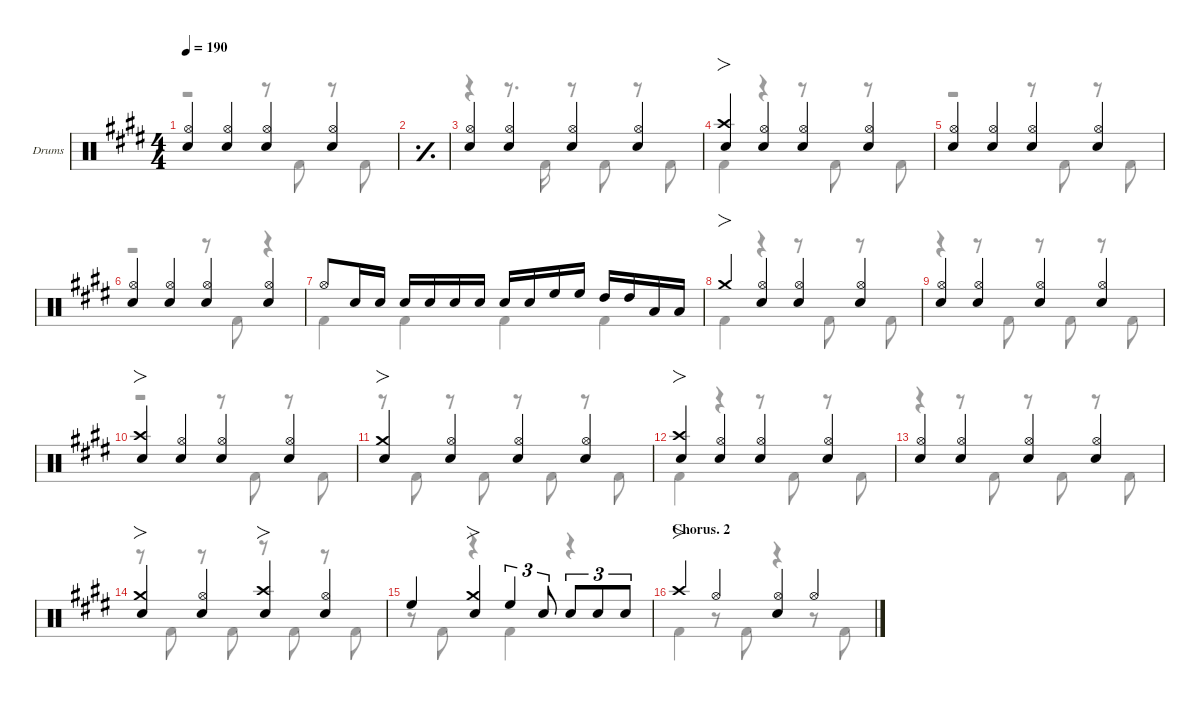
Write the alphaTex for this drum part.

\defaultSystemsLayout 4
\hideDynamics
\bracketExtendMode nobrackets
\firstSystemTrackNameOrientation horizontal
\track ("Drums" "Drums") {defaultSystemsLayout 4 instrument percussion}
\staff {score}
\articulation defaults
\voice
\ts (4 4)
\tempo 190
\clef neutral
\scale
0.244132
\ks e
("Snare (hit) 2"{acc forcenatural} "Hi-Hat (open)"{acc forcenatural}).4{dy f beam Up} ("Snare (hit) 2"{acc forcenatural} "Hi-Hat (open)"{acc forcenatural}).4{beam Up} ("Snare (hit) 2"{acc forcenatural} "Hi-Hat (open)"{acc forcenatural}).4{beam Up} ("Snare (hit) 2"{acc forcenatural} "Hi-Hat (open)"{acc forcenatural}).4{beam Up} |
\simile simple
\scale
0.244132 |
\simile none
\scale
0.244132 ("Snare (hit) 2"{acc forcenatural} "Hi-Hat (open)"{acc forcenatural}).4{beam Up} ("Snare (hit) 2"{acc forcenatural} "Hi-Hat (open)"{acc forcenatural}).4{beam Up} ("Snare (hit) 2"{acc forcenatural} "Hi-Hat (open)"{acc forcenatural}).4{beam Up} ("Snare (hit) 2"{acc forcenatural} "Hi-Hat (open)"{acc forcenatural}).4{beam Up} |
\scale
0.267605 ("Crash high (hit)"{acc forcenatural} "Snare (hit) 2"{acc forcenatural}).4{fo beam Up} ("Snare (hit) 2"{acc forcenatural} "Hi-Hat (open)"{acc forcenatural}).4{beam Up} ("Snare (hit) 2"{acc forcenatural} "Hi-Hat (open)"{acc forcenatural}).4{beam Up} ("Snare (hit) 2"{acc forcenatural} "Hi-Hat (open)"{acc forcenatural}).4{beam Up} |
\scale
0.244132 ("Snare (hit) 2"{acc forcenatural} "Hi-Hat (open)"{acc forcenatural}).4{beam Up} ("Snare (hit) 2"{acc forcenatural} "Hi-Hat (open)"{acc forcenatural}).4{beam Up} ("Snare (hit) 2"{acc forcenatural} "Hi-Hat (open)"{acc forcenatural}).4{beam Up} ("Snare (hit) 2"{acc forcenatural} "Hi-Hat (open)"{acc forcenatural}).4{beam Up} |
\scale
0.244132 ("Snare (hit) 2"{acc forcenatural} "Hi-Hat (open)"{acc forcenatural}).4{beam Up} ("Snare (hit) 2"{acc forcenatural} "Hi-Hat (open)"{acc forcenatural}).4{beam Up} ("Snare (hit) 2"{acc forcenatural} "Hi-Hat (open)"{acc forcenatural}).4{beam Up} ("Snare (hit) 2"{acc forcenatural} "Hi-Hat (open)"{acc forcenatural}).4{beam Up} |
\scale
0.244132 "Hi-Hat (open)"{acc forcenatural}.8{beam Up} "Snare (hit) 2"{acc forcenatural}.16{beam Up} "Snare (hit) 2"{acc forcenatural}.16{dy mf beam Up beam split} "Snare (hit) 2"{acc forcenatural}.16{dy f beam Up} "Snare (hit) 2"{acc forcenatural}.16{dy mf beam Up} "Snare (hit) 2"{acc forcenatural}.16{dy f beam Up} "Snare (hit) 2"{acc forcenatural}.16{dy mf beam Up} "Snare (hit) 2"{acc forcenatural}.16{dy f beam Up} "Snare (hit) 2"{acc forcenatural}.16{dy mf beam Up} "High Floor Tom (hit)"{acc forcenatural}.16{dy f beam Up} "High Floor Tom (hit)"{acc forcenatural}.16{beam Up beam split} "High Tom (hit)"{acc forcenatural}.16{beam Up} "High Tom (hit)"{acc forcenatural}.16{beam Up} "Low Tom (hit)"{acc forcenatural}.16{beam Up} "Low Tom (hit)"{acc forcenatural}.16{beam Up} |
\scale
0.267605 "Crash medium (hit)"{acc forcenatural}.4{fo beam Up} ("Snare (hit) 2"{acc forcenatural} "Hi-Hat (open)"{acc forcenatural}).4{beam Up} ("Snare (hit) 2"{acc forcenatural} "Hi-Hat (open)"{acc forcenatural}).4{beam Up} ("Snare (hit) 2"{acc forcenatural} "Hi-Hat (open)"{acc forcenatural}).4{beam Up} |
\scale
0.244132 ("Snare (hit) 2"{acc forcenatural} "Hi-Hat (open)"{acc forcenatural}).4{beam Up} ("Snare (hit) 2"{acc forcenatural} "Hi-Hat (open)"{acc forcenatural}).4{beam Up} ("Snare (hit) 2"{acc forcenatural} "Hi-Hat (open)"{acc forcenatural}).4{beam Up} ("Snare (hit) 2"{acc forcenatural} "Hi-Hat (open)"{acc forcenatural}).4{beam Up} |
\scale
0.244132 ("Crash high (hit)"{acc forcenatural} "Snare (hit) 2"{acc forcenatural}).4{fo beam Up} ("Snare (hit) 2"{acc forcenatural} "Hi-Hat (open)"{acc forcenatural}).4{beam Up} ("Snare (hit) 2"{acc forcenatural} "Hi-Hat (open)"{acc forcenatural}).4{beam Up} ("Snare (hit) 2"{acc forcenatural} "Hi-Hat (open)"{acc forcenatural}).4{beam Up} |
\scale
0.244132 ("Snare (hit) 2"{acc forcenatural} "Crash medium (hit)"{acc forcenatural}).4{fo beam Up} ("Snare (hit) 2"{acc forcenatural} "Hi-Hat (open)"{acc forcenatural}).4{beam Up} ("Snare (hit) 2"{acc forcenatural} "Hi-Hat (open)"{acc forcenatural}).4{beam Up} ("Snare (hit) 2"{acc forcenatural} "Hi-Hat (open)"{acc forcenatural}).4{beam Up} |
\scale
0.267605 ("Crash high (hit)"{acc forcenatural} "Snare (hit) 2"{acc forcenatural}).4{fo beam Up} ("Snare (hit) 2"{acc forcenatural} "Hi-Hat (open)"{acc forcenatural}).4{beam Up} ("Snare (hit) 2"{acc forcenatural} "Hi-Hat (open)"{acc forcenatural}).4{beam Up} ("Snare (hit) 2"{acc forcenatural} "Hi-Hat (open)"{acc forcenatural}).4{beam Up} |
\scale
0.244132 ("Snare (hit) 2"{acc forcenatural} "Hi-Hat (open)"{acc forcenatural}).4{beam Up} ("Snare (hit) 2"{acc forcenatural} "Hi-Hat (open)"{acc forcenatural}).4{beam Up} ("Snare (hit) 2"{acc forcenatural} "Hi-Hat (open)"{acc forcenatural}).4{beam Up} ("Snare (hit) 2"{acc forcenatural} "Hi-Hat (open)"{acc forcenatural}).4{beam Up} |
\scale
0.244132 ("Snare (hit) 2"{acc forcenatural} "Crash medium (hit)"{acc forcenatural}).4{fo beam Up} ("Snare (hit) 2"{acc forcenatural} "Hi-Hat (open)"{acc forcenatural}).4{beam Up} ("Snare (hit) 2"{acc forcenatural} "Crash high (hit)"{acc forcenatural}).4{fo beam Up} ("Snare (hit) 2"{acc forcenatural} "Hi-Hat (open)"{acc forcenatural}).4{beam Up} |
\scale
0.244132 "High Floor Tom (hit)"{acc forcenatural}.4{beam Up} ("Snare (hit) 2"{acc forcenatural} "Crash medium (hit)"{acc forcenatural}).4{fo beam Up} "High Floor Tom (hit)"{acc forcenatural}.4{tu (3 2) beam Up} "Snare (hit) 2"{acc forcenatural}.8{tu (3 2) dy mf beam Up} "Snare (hit) 2"{acc forcenatural}.8{tu (3 2) dy f beam Up} "Snare (hit) 2"{acc forcenatural}.8{tu (3 2) dy mf beam Up} "Snare (hit) 2"{acc forcenatural}.8{tu (3 2) beam Up} |
\section ("" "Chorus. 2")
\scale
0.267605 "Crash high (hit)"{acc forcenatural}.4{fo dy f beam Up} "Hi-Hat (open)"{acc forcenatural}.4{beam Up} ("Hi-Hat (open)"{acc forcenatural} "Snare (hit) 2"{acc forcenatural}).4{beam Up} "Hi-Hat (open)"{acc forcenatural}.4{beam Up}
\voice
\clef neutral
\ottava regular
\simile none
\scale
0.244132
\ks e
r.2{dy f beam Down} r.8{beam Down} "Kick (hit) 2"{acc forcenatural}.8{beam Down} r.8{beam Down} "Kick (hit) 2"{acc forcenatural}.8{beam Down} |
\simile simple
\scale
0.244132 |
\simile none
\scale
0.244132 r.4{beam Down} r.8{d beam Down} "Kick (hit) 2"{acc forcenatural}.16{beam Down} r.8{beam Down} "Kick (hit) 2"{acc forcenatural}.8{beam Down} r.8{beam Down} "Kick (hit) 2"{acc forcenatural}.8{beam Down} |
\scale
0.267605 "Kick (hit) 2"{acc forcenatural}.4{beam Down} r.4{beam Down} r.8{beam Down} "Kick (hit) 2"{acc forcenatural}.8{beam Down} r.8{beam Down} "Kick (hit) 2"{acc forcenatural}.8{beam Down} |
\scale
0.244132 r.2{beam Down} r.8{beam Down} "Kick (hit) 2"{acc forcenatural}.8{beam Down} r.8{beam Down} "Kick (hit) 2"{acc forcenatural}.8{beam Down} |
\scale
0.244132 r.2{beam Down} r.8{beam Down} "Kick (hit) 2"{acc forcenatural}.8{beam Down} r.4{beam Down} |
\scale
0.244132 "Kick (hit) 2"{acc forcenatural}.4{beam Down} "Kick (hit) 2"{acc forcenatural}.4{beam Down} "Kick (hit) 2"{acc forcenatural}.4{beam Down} "Kick (hit) 2"{acc forcenatural}.4{beam Down} |
\scale
0.267605 "Kick (hit) 2"{acc forcenatural}.4{beam Down} r.4{beam Down} r.8{beam Down} "Kick (hit) 2"{acc forcenatural}.8{beam Down} r.8{beam Down} "Kick (hit) 2"{acc forcenatural}.8{beam Down} |
\scale
0.244132 r.4{beam Down} r.8{beam Down} "Kick (hit) 2"{acc forcenatural}.8{beam Down} r.8{beam Down} "Kick (hit) 2"{acc forcenatural}.8{beam Down} r.8{beam Down} "Kick (hit) 2"{acc forcenatural}.8{beam Down} |
\scale
0.244132 r.2{beam Down} r.8{beam Down} "Kick (hit) 2"{acc forcenatural}.8{beam Down} r.8{beam Down} "Kick (hit) 2"{acc forcenatural}.8{beam Down} |
\scale
0.244132 r.8{beam Down} "Kick (hit) 2"{acc forcenatural}.8{beam Down} r.8{beam Down} "Kick (hit) 2"{acc forcenatural}.8{beam Down} r.8{beam Down} "Kick (hit) 2"{acc forcenatural}.8{beam Down} r.8{beam Down} "Kick (hit) 2"{acc forcenatural}.8{beam Down} |
\scale
0.267605 "Kick (hit) 2"{acc forcenatural}.4{beam Down} r.4{beam Down} r.8{beam Down} "Kick (hit) 2"{acc forcenatural}.8{beam Down} r.8{beam Down} "Kick (hit) 2"{acc forcenatural}.8{beam Down} |
\scale
0.244132 r.4{beam Down} r.8{beam Down} "Kick (hit) 2"{acc forcenatural}.8{beam Down} r.8{beam Down} "Kick (hit) 2"{acc forcenatural}.8{beam Down} r.8{beam Down} "Kick (hit) 2"{acc forcenatural}.8{beam Down} |
\scale
0.244132 r.8{beam Down} "Kick (hit) 2"{acc forcenatural}.8{beam Down} r.8{beam Down} "Kick (hit) 2"{acc forcenatural}.8{beam Down} r.8{beam Down} "Kick (hit) 2"{acc forcenatural}.8{beam Down} r.8{beam Down} "Kick (hit) 2"{acc forcenatural}.8{beam Down} |
\scale
0.244132 r.8{beam Down} "Kick (hit) 2"{acc forcenatural}.8{beam Down} r.4{beam Down} "Kick (hit) 2"{acc forcenatural}.4{beam Down} r.4{beam Down} |
\scale
0.267605 "Kick (hit) 2"{acc forcenatural}.4{beam Down} r.8{beam Down} "Kick (hit) 2"{acc forcenatural}.8{beam Down} r.4{beam Down} r.8{beam Down} "Kick (hit) 2"{acc forcenatural}.8{beam Down}
